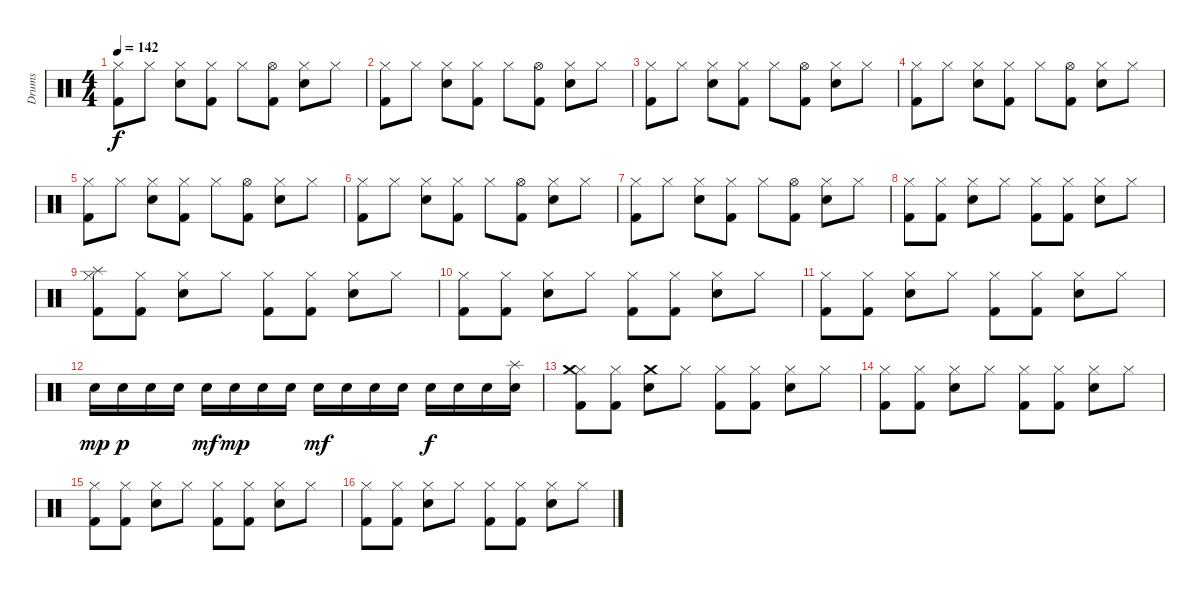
\track ("Drums" "Drums") {instrument percussion}
\staff {score}
\articulation defaults
\ts (4 4)
\tempo 142
\clef neutral
\ks c
("Hi-Hat (closed)" "Kick (hit) 2").8{dy f} "Hi-Hat (closed)".8 ("Hi-Hat (closed)" "Electric Snare (hit)").8 ("Hi-Hat (closed)" "Kick (hit) 2").8 "Hi-Hat (closed)".8 ("Hi-Hat (open)" "Kick (hit) 2").8 ("Hi-Hat (closed)" "Electric Snare (hit)").8 "Hi-Hat (closed)".8 |
("Hi-Hat (closed)" "Kick (hit) 2").8 "Hi-Hat (closed)".8 ("Hi-Hat (closed)" "Electric Snare (hit)").8 ("Hi-Hat (closed)" "Kick (hit) 2").8 "Hi-Hat (closed)".8 ("Hi-Hat (open)" "Kick (hit) 2").8 ("Hi-Hat (closed)" "Electric Snare (hit)").8 "Hi-Hat (closed)".8 |
("Hi-Hat (closed)" "Kick (hit) 2").8 "Hi-Hat (closed)".8 ("Hi-Hat (closed)" "Electric Snare (hit)").8 ("Hi-Hat (closed)" "Kick (hit) 2").8 "Hi-Hat (closed)".8 ("Hi-Hat (open)" "Kick (hit) 2").8 ("Hi-Hat (closed)" "Electric Snare (hit)").8 "Hi-Hat (closed)".8 |
("Hi-Hat (closed)" "Kick (hit) 2").8 "Hi-Hat (closed)".8 ("Hi-Hat (closed)" "Electric Snare (hit)").8 ("Hi-Hat (closed)" "Kick (hit) 2").8 "Hi-Hat (closed)".8 ("Hi-Hat (open)" "Kick (hit) 2").8 ("Hi-Hat (closed)" "Electric Snare (hit)").8 "Hi-Hat (closed)".8 |
("Hi-Hat (closed)" "Kick (hit) 2").8 "Hi-Hat (closed)".8 ("Hi-Hat (closed)" "Electric Snare (hit)").8 ("Hi-Hat (closed)" "Kick (hit) 2").8 "Hi-Hat (closed)".8 ("Hi-Hat (open)" "Kick (hit) 2").8 ("Hi-Hat (closed)" "Electric Snare (hit)").8 "Hi-Hat (closed)".8 |
("Hi-Hat (closed)" "Kick (hit) 2").8 "Hi-Hat (closed)".8 ("Hi-Hat (closed)" "Electric Snare (hit)").8 ("Hi-Hat (closed)" "Kick (hit) 2").8 "Hi-Hat (closed)".8 ("Hi-Hat (open)" "Kick (hit) 2").8 ("Hi-Hat (closed)" "Electric Snare (hit)").8 "Hi-Hat (closed)".8 |
("Hi-Hat (closed)" "Kick (hit) 2").8 "Hi-Hat (closed)".8 ("Hi-Hat (closed)" "Electric Snare (hit)").8 ("Hi-Hat (closed)" "Kick (hit) 2").8 "Hi-Hat (closed)".8 ("Hi-Hat (open)" "Kick (hit) 2").8 ("Hi-Hat (closed)" "Electric Snare (hit)").8 "Hi-Hat (closed)".8 |
("Hi-Hat (closed)" "Kick (hit) 2").8 ("Hi-Hat (closed)" "Kick (hit) 2").8 ("Hi-Hat (closed)" "Electric Snare (hit)").8 "Hi-Hat (closed)".8 ("Hi-Hat (closed)" "Kick (hit) 2").8 ("Hi-Hat (closed)" "Kick (hit) 2").8 ("Hi-Hat (closed)" "Electric Snare (hit)").8 "Hi-Hat (closed)".8 |
("Hi-Hat (closed)" "Splash (hit)" "Kick (hit) 2").8 ("Hi-Hat (closed)" "Kick (hit) 2").8 ("Hi-Hat (closed)" "Electric Snare (hit)").8 "Hi-Hat (closed)".8 ("Hi-Hat (closed)" "Kick (hit) 2").8 ("Hi-Hat (closed)" "Kick (hit) 2").8 ("Hi-Hat (closed)" "Electric Snare (hit)").8 "Hi-Hat (closed)".8 |
("Hi-Hat (closed)" "Kick (hit) 2").8 ("Hi-Hat (closed)" "Kick (hit) 2").8 ("Hi-Hat (closed)" "Electric Snare (hit)").8 "Hi-Hat (closed)".8 ("Hi-Hat (closed)" "Kick (hit) 2").8 ("Hi-Hat (closed)" "Kick (hit) 2").8 ("Hi-Hat (closed)" "Electric Snare (hit)").8 "Hi-Hat (closed)".8 |
("Hi-Hat (closed)" "Kick (hit) 2").8 ("Hi-Hat (closed)" "Kick (hit) 2").8 ("Hi-Hat (closed)" "Electric Snare (hit)").8 "Hi-Hat (closed)".8 ("Hi-Hat (closed)" "Kick (hit) 2").8 ("Hi-Hat (closed)" "Kick (hit) 2").8 ("Hi-Hat (closed)" "Electric Snare (hit)").8 "Hi-Hat (closed)".8 |
"Electric Snare (hit)".16{dy mp} "Electric Snare (hit)".16{dy p} "Electric Snare (hit)".16 "Electric Snare (hit)".16 "Electric Snare (hit)".16{dy mf} "Electric Snare (hit)".16{dy mp} "Electric Snare (hit)".16 "Electric Snare (hit)".16 "Electric Snare (hit)".16{dy mf} "Electric Snare (hit)".16 "Electric Snare (hit)".16 "Electric Snare (hit)".16 "Electric Snare (hit)".16{dy f} "Electric Snare (hit)".16 "Electric Snare (hit)".16 ("Splash (hit)" "Electric Snare (hit)").16 |
("Hi-Hat (closed)" "Crash medium (hit)" "Kick (hit) 2").8 ("Hi-Hat (closed)" "Kick (hit) 2").8 ("Crash medium (hit)" "Electric Snare (hit)").8 "Hi-Hat (closed)".8 ("Hi-Hat (closed)" "Kick (hit) 2").8 ("Hi-Hat (closed)" "Kick (hit) 2").8 ("Hi-Hat (closed)" "Electric Snare (hit)").8 "Hi-Hat (closed)".8 |
("Hi-Hat (closed)" "Kick (hit) 2").8 ("Hi-Hat (closed)" "Kick (hit) 2").8 ("Hi-Hat (closed)" "Electric Snare (hit)").8 "Hi-Hat (closed)".8 ("Hi-Hat (closed)" "Kick (hit) 2").8 ("Hi-Hat (closed)" "Kick (hit) 2").8 ("Hi-Hat (closed)" "Electric Snare (hit)").8 "Hi-Hat (closed)".8 |
("Hi-Hat (closed)" "Kick (hit) 2").8 ("Hi-Hat (closed)" "Kick (hit) 2").8 ("Hi-Hat (closed)" "Electric Snare (hit)").8 "Hi-Hat (closed)".8 ("Hi-Hat (closed)" "Kick (hit) 2").8 ("Hi-Hat (closed)" "Kick (hit) 2").8 ("Hi-Hat (closed)" "Electric Snare (hit)").8 "Hi-Hat (closed)".8 |
("Hi-Hat (closed)" "Kick (hit) 2").8 ("Hi-Hat (closed)" "Kick (hit) 2").8 ("Hi-Hat (closed)" "Electric Snare (hit)").8 "Hi-Hat (closed)".8 ("Hi-Hat (closed)" "Kick (hit) 2").8 ("Hi-Hat (closed)" "Kick (hit) 2").8 ("Hi-Hat (closed)" "Electric Snare (hit)").8 "Hi-Hat (closed)".8
